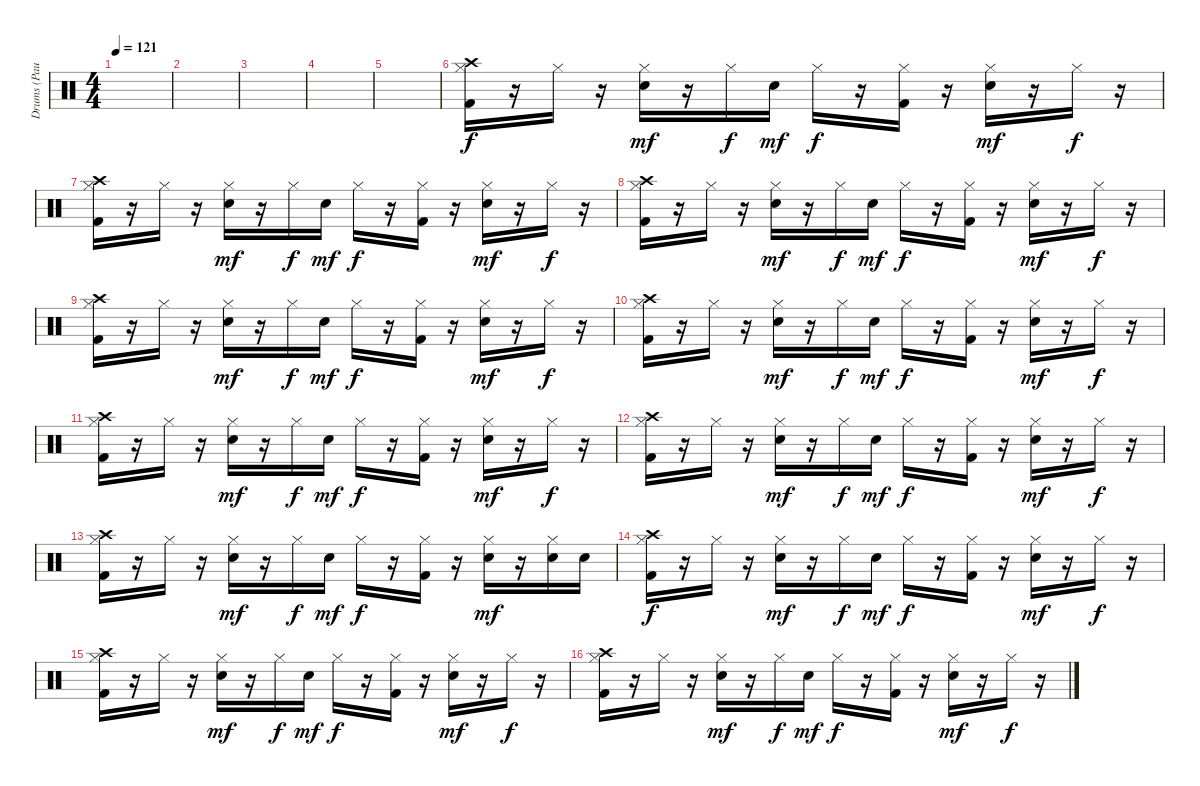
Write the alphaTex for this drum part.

\track ("Drums (Paul)" "Drums (Pau") {instrument percussion}
\staff {score}
\articulation defaults
\ts (4 4)
\tempo 121
\clef neutral
\ks c
|
|
|
|
|
("Hi-Hat (closed)" "Crash high (hit)" "Kick (hit) 2").16{dy f} r.16 "Hi-Hat (closed)".16 r.16 ("Hi-Hat (closed)" "Snare (hit) 2").16{dy mf} r.16 "Hi-Hat (closed)".16{dy f} "Snare (hit) 2".16{dy mf} "Hi-Hat (closed)".16{dy f} r.16 ("Hi-Hat (closed)" "Kick (hit) 2").16 r.16 ("Hi-Hat (closed)" "Snare (hit) 2").16{dy mf} r.16 "Hi-Hat (closed)".16{dy f} r.16 |
("Hi-Hat (closed)" "Crash high (hit)" "Kick (hit) 2").16 r.16 "Hi-Hat (closed)".16 r.16 ("Hi-Hat (closed)" "Snare (hit) 2").16{dy mf} r.16 "Hi-Hat (closed)".16{dy f} "Snare (hit) 2".16{dy mf} "Hi-Hat (closed)".16{dy f} r.16 ("Hi-Hat (closed)" "Kick (hit) 2").16 r.16 ("Hi-Hat (closed)" "Snare (hit) 2").16{dy mf} r.16 "Hi-Hat (closed)".16{dy f} r.16 |
("Hi-Hat (closed)" "Crash high (hit)" "Kick (hit) 2").16 r.16 "Hi-Hat (closed)".16 r.16 ("Hi-Hat (closed)" "Snare (hit) 2").16{dy mf} r.16 "Hi-Hat (closed)".16{dy f} "Snare (hit) 2".16{dy mf} "Hi-Hat (closed)".16{dy f} r.16 ("Hi-Hat (closed)" "Kick (hit) 2").16 r.16 ("Hi-Hat (closed)" "Snare (hit) 2").16{dy mf} r.16 "Hi-Hat (closed)".16{dy f} r.16 |
("Hi-Hat (closed)" "Crash high (hit)" "Kick (hit) 2").16 r.16 "Hi-Hat (closed)".16 r.16 ("Hi-Hat (closed)" "Snare (hit) 2").16{dy mf} r.16 "Hi-Hat (closed)".16{dy f} "Snare (hit) 2".16{dy mf} "Hi-Hat (closed)".16{dy f} r.16 ("Hi-Hat (closed)" "Kick (hit) 2").16 r.16 ("Hi-Hat (closed)" "Snare (hit) 2").16{dy mf} r.16 "Hi-Hat (closed)".16{dy f} r.16 |
("Hi-Hat (closed)" "Crash high (hit)" "Kick (hit) 2").16 r.16 "Hi-Hat (closed)".16 r.16 ("Hi-Hat (closed)" "Snare (hit) 2").16{dy mf} r.16 "Hi-Hat (closed)".16{dy f} "Snare (hit) 2".16{dy mf} "Hi-Hat (closed)".16{dy f} r.16 ("Hi-Hat (closed)" "Kick (hit) 2").16 r.16 ("Hi-Hat (closed)" "Snare (hit) 2").16{dy mf} r.16 "Hi-Hat (closed)".16{dy f} r.16 |
("Hi-Hat (closed)" "Crash high (hit)" "Kick (hit) 2").16 r.16 "Hi-Hat (closed)".16 r.16 ("Hi-Hat (closed)" "Snare (hit) 2").16{dy mf} r.16 "Hi-Hat (closed)".16{dy f} "Snare (hit) 2".16{dy mf} "Hi-Hat (closed)".16{dy f} r.16 ("Hi-Hat (closed)" "Kick (hit) 2").16 r.16 ("Hi-Hat (closed)" "Snare (hit) 2").16{dy mf} r.16 "Hi-Hat (closed)".16{dy f} r.16 |
("Hi-Hat (closed)" "Crash high (hit)" "Kick (hit) 2").16 r.16 "Hi-Hat (closed)".16 r.16 ("Hi-Hat (closed)" "Snare (hit) 2").16{dy mf} r.16 "Hi-Hat (closed)".16{dy f} "Snare (hit) 2".16{dy mf} "Hi-Hat (closed)".16{dy f} r.16 ("Hi-Hat (closed)" "Kick (hit) 2").16 r.16 ("Hi-Hat (closed)" "Snare (hit) 2").16{dy mf} r.16 "Hi-Hat (closed)".16{dy f} r.16 |
("Hi-Hat (closed)" "Crash high (hit)" "Kick (hit) 2").16 r.16 "Hi-Hat (closed)".16 r.16 ("Hi-Hat (closed)" "Snare (hit) 2").16{dy mf} r.16 "Hi-Hat (closed)".16{dy f} "Snare (hit) 2".16{dy mf} "Hi-Hat (closed)".16{dy f} r.16 ("Hi-Hat (closed)" "Kick (hit) 2").16 r.16 ("Hi-Hat (closed)" "Snare (hit) 2").16{dy mf} r.16 ("Hi-Hat (closed)" "Snare (hit) 2").16 "Snare (hit) 2".16 |
("Hi-Hat (closed)" "Crash high (hit)" "Kick (hit) 2").16{dy f} r.16 "Hi-Hat (closed)".16 r.16 ("Hi-Hat (closed)" "Snare (hit) 2").16{dy mf} r.16 "Hi-Hat (closed)".16{dy f} "Snare (hit) 2".16{dy mf} "Hi-Hat (closed)".16{dy f} r.16 ("Hi-Hat (closed)" "Kick (hit) 2").16 r.16 ("Hi-Hat (closed)" "Snare (hit) 2").16{dy mf} r.16 "Hi-Hat (closed)".16{dy f} r.16 |
("Hi-Hat (closed)" "Crash high (hit)" "Kick (hit) 2").16 r.16 "Hi-Hat (closed)".16 r.16 ("Hi-Hat (closed)" "Snare (hit) 2").16{dy mf} r.16 "Hi-Hat (closed)".16{dy f} "Snare (hit) 2".16{dy mf} "Hi-Hat (closed)".16{dy f} r.16 ("Hi-Hat (closed)" "Kick (hit) 2").16 r.16 ("Hi-Hat (closed)" "Snare (hit) 2").16{dy mf} r.16 "Hi-Hat (closed)".16{dy f} r.16 |
("Hi-Hat (closed)" "Crash high (hit)" "Kick (hit) 2").16 r.16 "Hi-Hat (closed)".16 r.16 ("Hi-Hat (closed)" "Snare (hit) 2").16{dy mf} r.16 "Hi-Hat (closed)".16{dy f} "Snare (hit) 2".16{dy mf} "Hi-Hat (closed)".16{dy f} r.16 ("Hi-Hat (closed)" "Kick (hit) 2").16 r.16 ("Hi-Hat (closed)" "Snare (hit) 2").16{dy mf} r.16 "Hi-Hat (closed)".16{dy f} r.16
